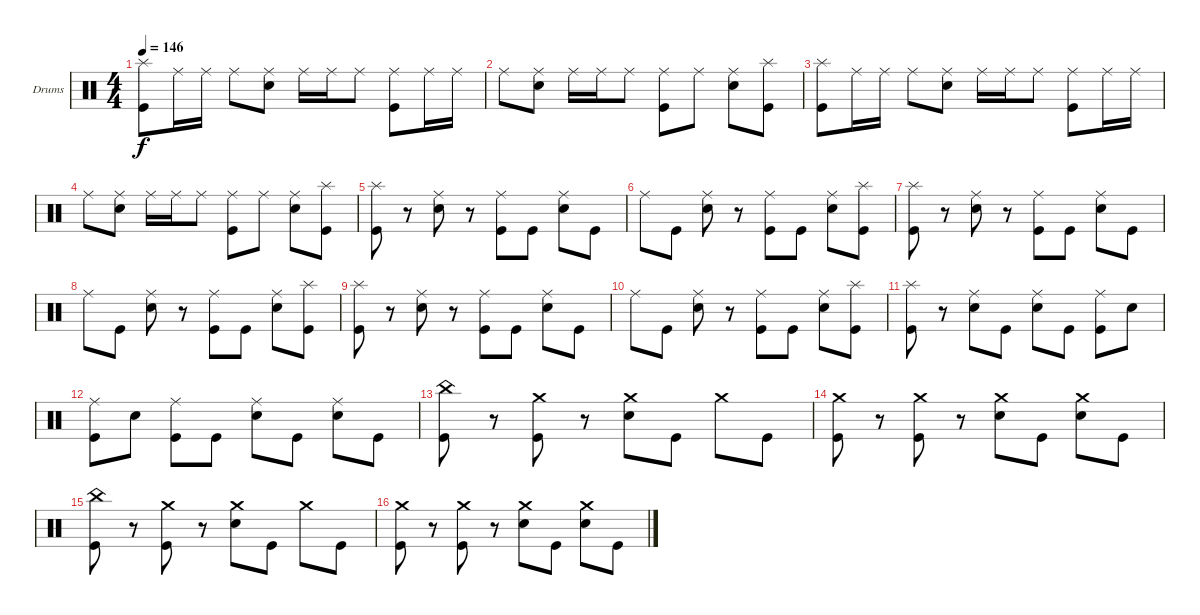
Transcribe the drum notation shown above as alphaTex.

\bracketExtendMode groupsimilarinstruments
\firstSystemTrackNameOrientation horizontal
\otherSystemsTrackNameOrientation horizontal
\track ("Drumkit" "Drums") {instrument percussion}
\staff {score}
\articulation defaults
\ts (4 4)
\tempo 146
\clef neutral
\scale
0.333333
\ks c
("Kick (hit)" "Splash (hit)").8{dy f} "Ride (middle)".16 "Ride (middle)".16 "Ride (middle)".8 ("Snare (hit) 2" "Ride (middle)").8 "Ride (middle)".16 "Ride (middle)".16 "Ride (middle)".8 ("Kick (hit)" "Ride (middle)").8 "Ride (middle)".16 "Ride (middle)".16 |
\scale
0.333333 "Ride (middle)".8 ("Snare (hit) 2" "Ride (middle)").8 "Ride (middle)".16 "Ride (middle)".16 "Ride (middle)".8 ("Kick (hit)" "Ride (middle)").8 "Ride (middle)".8 ("Snare (hit) 2" "Ride (middle)").8 ("Kick (hit)" "Splash (hit)").8 |
\scale
0.333333 ("Kick (hit)" "Splash (hit)").8 "Ride (middle)".16 "Ride (middle)".16 "Ride (middle)".8 ("Snare (hit) 2" "Ride (middle)").8 "Ride (middle)".16 "Ride (middle)".16 "Ride (middle)".8 ("Kick (hit)" "Ride (middle)").8 "Ride (middle)".16 "Ride (middle)".16 |
\scale
0.333333 "Ride (middle)".8 ("Snare (hit) 2" "Ride (middle)").8 "Ride (middle)".16 "Ride (middle)".16 "Ride (middle)".8 ("Kick (hit)" "Ride (middle)").8 "Ride (middle)".8 ("Snare (hit) 2" "Ride (middle)").8 ("Kick (hit)" "Splash (hit)").8 |
\scale
0.333333 ("Kick (hit)" "Splash (hit)").8 r.8 ("Ride (middle)" "Snare (hit) 2").8 r.8 ("Ride (middle)" "Kick (hit)").8 "Kick (hit)".8 ("Ride (middle)" "Snare (hit) 2").8 "Kick (hit)".8 |
\scale
0.333333 "Ride (middle)".8 "Kick (hit)".8 ("Ride (middle)" "Snare (hit) 2").8 r.8 ("Ride (middle)" "Kick (hit)").8 "Kick (hit)".8 ("Ride (middle)" "Snare (hit) 2").8 ("Kick (hit)" "Splash (hit)").8 |
\scale
0.333333 ("Kick (hit)" "Splash (hit)").8 r.8 ("Ride (middle)" "Snare (hit) 2").8 r.8 ("Ride (middle)" "Kick (hit)").8 "Kick (hit)".8 ("Ride (middle)" "Snare (hit) 2").8 "Kick (hit)".8 |
\scale
0.333333 "Ride (middle)".8 "Kick (hit)".8 ("Ride (middle)" "Snare (hit) 2").8 r.8 ("Ride (middle)" "Kick (hit)").8 "Kick (hit)".8 ("Ride (middle)" "Snare (hit) 2").8 ("Kick (hit)" "Splash (hit)").8 |
\scale
0.333333 ("Kick (hit)" "Splash (hit)").8 r.8 ("Ride (middle)" "Snare (hit) 2").8 r.8 ("Ride (middle)" "Kick (hit)").8 "Kick (hit)".8 ("Ride (middle)" "Snare (hit) 2").8 "Kick (hit)".8 |
\scale
0.333333 "Ride (middle)".8 "Kick (hit)".8 ("Ride (middle)" "Snare (hit) 2").8 r.8 ("Ride (middle)" "Kick (hit)").8 "Kick (hit)".8 ("Ride (middle)" "Snare (hit) 2").8 ("Kick (hit)" "Splash (hit)").8 |
\scale
0.333333 ("Kick (hit)" "Splash (hit)").8 r.8 ("Ride (middle)" "Snare (hit) 2").8 "Kick (hit)".8 ("Ride (middle)" "Snare (hit) 2").8 "Kick (hit)".8 ("Ride (middle)" "Kick (hit)").8 "Snare (hit) 2".8 |
\scale
0.333333 ("Kick (hit)" "Ride (middle)").8 "Snare (hit) 2".8 ("Kick (hit)" "Ride (middle)").8 "Kick (hit)".8 ("Ride (middle)" "Snare (hit) 2").8 "Kick (hit)".8 ("Ride (middle)" "Snare (hit) 2").8 "Kick (hit)".8 |
\scale
0.333333 ("Kick (hit)" "China (hit)").8 r.8 ("Crash medium (hit)" "Kick (hit)").8 r.8 ("Crash medium (hit)" "Snare (hit) 2").8 "Kick (hit)".8 "Crash medium (hit)".8 "Kick (hit)".8 |
\scale
0.333333 ("Kick (hit)" "Crash medium (hit)").8 r.8 ("Crash medium (hit)" "Kick (hit)").8 r.8 ("Crash medium (hit)" "Snare (hit) 2").8 "Kick (hit)".8 ("Crash medium (hit)" "Snare (hit) 2").8 "Kick (hit)".8 |
\scale
0.333333 ("Kick (hit)" "China (hit)").8 r.8 ("Crash medium (hit)" "Kick (hit)").8 r.8 ("Crash medium (hit)" "Snare (hit) 2").8 "Kick (hit)".8 "Crash medium (hit)".8 "Kick (hit)".8 |
\scale
0.333333 ("Kick (hit)" "Crash medium (hit)").8 r.8 ("Crash medium (hit)" "Kick (hit)").8 r.8 ("Crash medium (hit)" "Snare (hit) 2").8 "Kick (hit)".8 ("Crash medium (hit)" "Snare (hit) 2").8 "Kick (hit)".8
